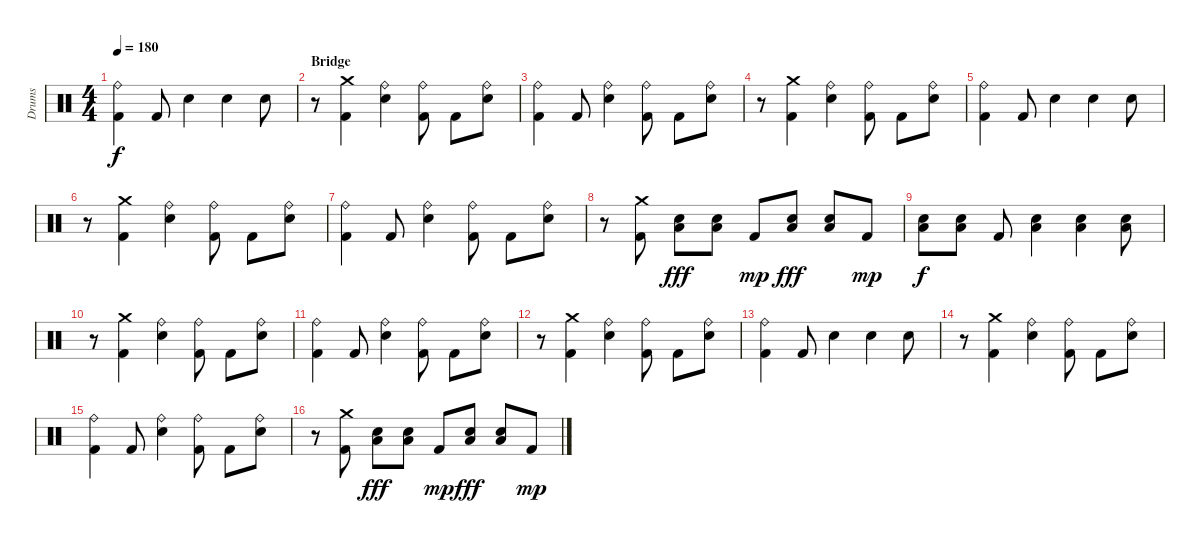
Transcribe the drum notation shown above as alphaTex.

\track ("Drums" "Drums") {instrument percussion}
\staff {score}
\articulation defaults
\ts (4 4)
\tempo 180
\clef neutral
\ks c
("Ride (bell)" "Kick (hit) 2").4{dy f} "Kick (hit) 2".8 "Snare (hit) 2".4 "Snare (hit) 2".4 "Snare (hit) 2".8 |
\section ("" "Bridge")
r.8 ("Crash medium (hit)" "Kick (hit) 2").4 ("Ride (bell)" "Snare (hit) 2").4 ("Ride (bell)" "Kick (hit) 2").8 "Kick (hit) 2".8 ("Ride (bell)" "Snare (hit) 2").8 |
("Ride (bell)" "Kick (hit) 2").4 "Kick (hit) 2".8 ("Ride (bell)" "Snare (hit) 2").4 ("Ride (bell)" "Kick (hit) 2").8 "Kick (hit) 2".8 ("Ride (bell)" "Snare (hit) 2").8 |
r.8 ("Crash medium (hit)" "Kick (hit) 2").4 ("Ride (bell)" "Snare (hit) 2").4 ("Ride (bell)" "Kick (hit) 2").8 "Kick (hit) 2".8 ("Ride (bell)" "Snare (hit) 2").8 |
("Ride (bell)" "Kick (hit) 2").4 "Kick (hit) 2".8 "Snare (hit) 2".4 "Snare (hit) 2".4 "Snare (hit) 2".8 |
r.8 ("Crash medium (hit)" "Kick (hit) 2").4 ("Ride (bell)" "Snare (hit) 2").4 ("Ride (bell)" "Kick (hit) 2").8 "Kick (hit) 2".8 ("Ride (bell)" "Snare (hit) 2").8 |
("Ride (bell)" "Kick (hit) 2").4 "Kick (hit) 2".8 ("Ride (bell)" "Snare (hit) 2").4 ("Ride (bell)" "Kick (hit) 2").8 "Kick (hit) 2".8 ("Ride (bell)" "Snare (hit) 2").8 |
r.8 ("Crash medium (hit)" "Kick (hit) 2").8 ("Snare (hit) 2" "Low Floor Tom (hit)").8{dy fff} ("Snare (hit) 2" "Low Floor Tom (hit)").8 "Kick (hit) 2".8{dy mp} ("Snare (hit) 2" "Low Floor Tom (hit)").8{dy fff} ("Snare (hit) 2" "Low Floor Tom (hit)").8 "Kick (hit) 2".8{dy mp} |
("Snare (hit) 2" "Low Floor Tom (hit)").8{dy f} ("Snare (hit) 2" "Low Floor Tom (hit)").8 "Kick (hit) 2".8 ("Snare (hit) 2" "Low Floor Tom (hit)").4 ("Snare (hit) 2" "Low Floor Tom (hit)").4 ("Snare (hit) 2" "Low Floor Tom (hit)").8 |
r.8 ("Crash medium (hit)" "Kick (hit) 2").4 ("Ride (bell)" "Snare (hit) 2").4 ("Ride (bell)" "Kick (hit) 2").8 "Kick (hit) 2".8 ("Ride (bell)" "Snare (hit) 2").8 |
("Ride (bell)" "Kick (hit) 2").4 "Kick (hit) 2".8 ("Ride (bell)" "Snare (hit) 2").4 ("Ride (bell)" "Kick (hit) 2").8 "Kick (hit) 2".8 ("Ride (bell)" "Snare (hit) 2").8 |
r.8 ("Crash medium (hit)" "Kick (hit) 2").4 ("Ride (bell)" "Snare (hit) 2").4 ("Ride (bell)" "Kick (hit) 2").8 "Kick (hit) 2".8 ("Ride (bell)" "Snare (hit) 2").8 |
("Ride (bell)" "Kick (hit) 2").4 "Kick (hit) 2".8 "Snare (hit) 2".4 "Snare (hit) 2".4 "Snare (hit) 2".8 |
r.8 ("Crash medium (hit)" "Kick (hit) 2").4 ("Ride (bell)" "Snare (hit) 2").4 ("Ride (bell)" "Kick (hit) 2").8 "Kick (hit) 2".8 ("Ride (bell)" "Snare (hit) 2").8 |
("Ride (bell)" "Kick (hit) 2").4 "Kick (hit) 2".8 ("Ride (bell)" "Snare (hit) 2").4 ("Ride (bell)" "Kick (hit) 2").8 "Kick (hit) 2".8 ("Ride (bell)" "Snare (hit) 2").8 |
r.8 ("Crash medium (hit)" "Kick (hit) 2").8 ("Snare (hit) 2" "Low Floor Tom (hit)").8{dy fff} ("Snare (hit) 2" "Low Floor Tom (hit)").8 "Kick (hit) 2".8{dy mp} ("Snare (hit) 2" "Low Floor Tom (hit)").8{dy fff} ("Snare (hit) 2" "Low Floor Tom (hit)").8 "Kick (hit) 2".8{dy mp}
